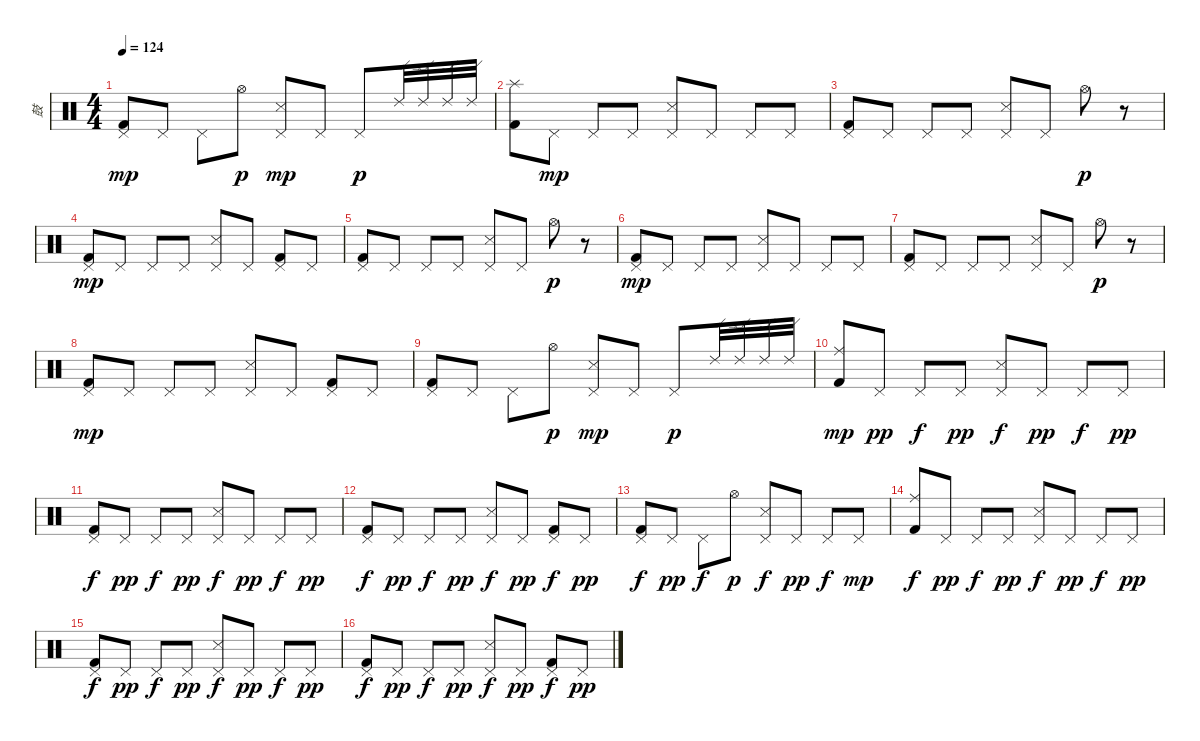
\track ("鼓" "鼓") {instrument percussion}
\staff {score}
\articulation defaults
\ts (4 4)
\tempo 124
\clef neutral
\ks c
("Kick (hit) 2" "Pedal Hi-Hat (hit)").8{dy mp} "Pedal Hi-Hat (hit)".8 "Pedal Hi-Hat (hit)".8 "Hi-Hat (open)".8{dy p} ("Snare (side stick) 3" "Pedal Hi-Hat (hit)").8{dy mp} "Pedal Hi-Hat (hit)".8 "Pedal Hi-Hat (hit)".8{dy p} "Ride (edge) 2".32 "Ride (edge) 2".32 "Ride (edge) 2".32 "Ride (edge) 2".32 |
("Kick (hit) 2" "Splash (hit)").8 "Pedal Hi-Hat (hit)".8{dy mp} "Pedal Hi-Hat (hit)".8 "Pedal Hi-Hat (hit)".8 ("Snare (side stick) 3" "Pedal Hi-Hat (hit)").8 "Pedal Hi-Hat (hit)".8 "Pedal Hi-Hat (hit)".8 "Pedal Hi-Hat (hit)".8 |
("Kick (hit) 2" "Pedal Hi-Hat (hit)").8 "Pedal Hi-Hat (hit)".8 "Pedal Hi-Hat (hit)".8 "Pedal Hi-Hat (hit)".8 ("Snare (side stick) 3" "Pedal Hi-Hat (hit)").8 "Pedal Hi-Hat (hit)".8 "Hi-Hat (open)".8{dy p} r.8 |
("Kick (hit) 2" "Pedal Hi-Hat (hit)").8{dy mp} "Pedal Hi-Hat (hit)".8 "Pedal Hi-Hat (hit)".8 "Pedal Hi-Hat (hit)".8 ("Snare (side stick) 3" "Pedal Hi-Hat (hit)").8 "Pedal Hi-Hat (hit)".8 ("Kick (hit) 2" "Pedal Hi-Hat (hit)").8 "Pedal Hi-Hat (hit)".8 |
("Kick (hit) 2" "Pedal Hi-Hat (hit)").8 "Pedal Hi-Hat (hit)".8 "Pedal Hi-Hat (hit)".8 "Pedal Hi-Hat (hit)".8 ("Snare (side stick) 3" "Pedal Hi-Hat (hit)").8 "Pedal Hi-Hat (hit)".8 "Hi-Hat (open)".8{dy p} r.8 |
("Kick (hit) 2" "Pedal Hi-Hat (hit)").8{dy mp} "Pedal Hi-Hat (hit)".8 "Pedal Hi-Hat (hit)".8 "Pedal Hi-Hat (hit)".8 ("Snare (side stick) 3" "Pedal Hi-Hat (hit)").8 "Pedal Hi-Hat (hit)".8 "Pedal Hi-Hat (hit)".8 "Pedal Hi-Hat (hit)".8 |
("Kick (hit) 2" "Pedal Hi-Hat (hit)").8 "Pedal Hi-Hat (hit)".8 "Pedal Hi-Hat (hit)".8 "Pedal Hi-Hat (hit)".8 ("Snare (side stick) 3" "Pedal Hi-Hat (hit)").8 "Pedal Hi-Hat (hit)".8 "Hi-Hat (open)".8{dy p} r.8 |
("Kick (hit) 2" "Pedal Hi-Hat (hit)").8{dy mp} "Pedal Hi-Hat (hit)".8 "Pedal Hi-Hat (hit)".8 "Pedal Hi-Hat (hit)".8 ("Snare (side stick) 3" "Pedal Hi-Hat (hit)").8 "Pedal Hi-Hat (hit)".8 ("Kick (hit) 2" "Pedal Hi-Hat (hit)").8 "Pedal Hi-Hat (hit)".8 |
("Kick (hit) 2" "Pedal Hi-Hat (hit)").8 "Pedal Hi-Hat (hit)".8 "Pedal Hi-Hat (hit)".8 "Hi-Hat (open)".8{dy p} ("Snare (side stick) 3" "Pedal Hi-Hat (hit)").8{dy mp} "Pedal Hi-Hat (hit)".8 "Pedal Hi-Hat (hit)".8{dy p} "Ride (edge) 2".32 "Ride (edge) 2".32 "Ride (edge) 2".32 "Ride (edge) 2".32 |
("Kick (hit) 2" "Ride (middle)").8{dy mp} "Pedal Hi-Hat (hit)".8{dy pp} "Pedal Hi-Hat (hit)".8{dy f} "Pedal Hi-Hat (hit)".8{dy pp} ("Snare (side stick) 3" "Pedal Hi-Hat (hit)").8{dy f} "Pedal Hi-Hat (hit)".8{dy pp} "Pedal Hi-Hat (hit)".8{dy f} "Pedal Hi-Hat (hit)".8{dy pp} |
("Kick (hit) 2" "Pedal Hi-Hat (hit)").8{dy f} "Pedal Hi-Hat (hit)".8{dy pp} "Pedal Hi-Hat (hit)".8{dy f} "Pedal Hi-Hat (hit)".8{dy pp} ("Snare (side stick) 3" "Pedal Hi-Hat (hit)").8{dy f} "Pedal Hi-Hat (hit)".8{dy pp} "Pedal Hi-Hat (hit)".8{dy f} "Pedal Hi-Hat (hit)".8{dy pp} |
("Kick (hit) 2" "Pedal Hi-Hat (hit)").8{dy f} "Pedal Hi-Hat (hit)".8{dy pp} "Pedal Hi-Hat (hit)".8{dy f} "Pedal Hi-Hat (hit)".8{dy pp} ("Snare (side stick) 3" "Pedal Hi-Hat (hit)").8{dy f} "Pedal Hi-Hat (hit)".8{dy pp} ("Kick (hit) 2" "Pedal Hi-Hat (hit)").8{dy f} "Pedal Hi-Hat (hit)".8{dy pp} |
("Kick (hit) 2" "Pedal Hi-Hat (hit)").8{dy f} "Pedal Hi-Hat (hit)".8{dy pp} "Pedal Hi-Hat (hit)".8{dy f} "Hi-Hat (open)".8{dy p} ("Snare (side stick) 3" "Pedal Hi-Hat (hit)").8{dy f} "Pedal Hi-Hat (hit)".8{dy pp} "Pedal Hi-Hat (hit)".8{dy f} "Pedal Hi-Hat (hit)".8{dy mp} |
("Kick (hit) 2" "Ride (middle)").8{dy f} "Pedal Hi-Hat (hit)".8{dy pp} "Pedal Hi-Hat (hit)".8{dy f} "Pedal Hi-Hat (hit)".8{dy pp} ("Snare (side stick) 3" "Pedal Hi-Hat (hit)").8{dy f} "Pedal Hi-Hat (hit)".8{dy pp} "Pedal Hi-Hat (hit)".8{dy f} "Pedal Hi-Hat (hit)".8{dy pp} |
("Kick (hit) 2" "Pedal Hi-Hat (hit)").8{dy f} "Pedal Hi-Hat (hit)".8{dy pp} "Pedal Hi-Hat (hit)".8{dy f} "Pedal Hi-Hat (hit)".8{dy pp} ("Snare (side stick) 3" "Pedal Hi-Hat (hit)").8{dy f} "Pedal Hi-Hat (hit)".8{dy pp} "Pedal Hi-Hat (hit)".8{dy f} "Pedal Hi-Hat (hit)".8{dy pp} |
("Kick (hit) 2" "Pedal Hi-Hat (hit)").8{dy f} "Pedal Hi-Hat (hit)".8{dy pp} "Pedal Hi-Hat (hit)".8{dy f} "Pedal Hi-Hat (hit)".8{dy pp} ("Snare (side stick) 3" "Pedal Hi-Hat (hit)").8{dy f} "Pedal Hi-Hat (hit)".8{dy pp} ("Kick (hit) 2" "Pedal Hi-Hat (hit)").8{dy f} "Pedal Hi-Hat (hit)".8{dy pp}
